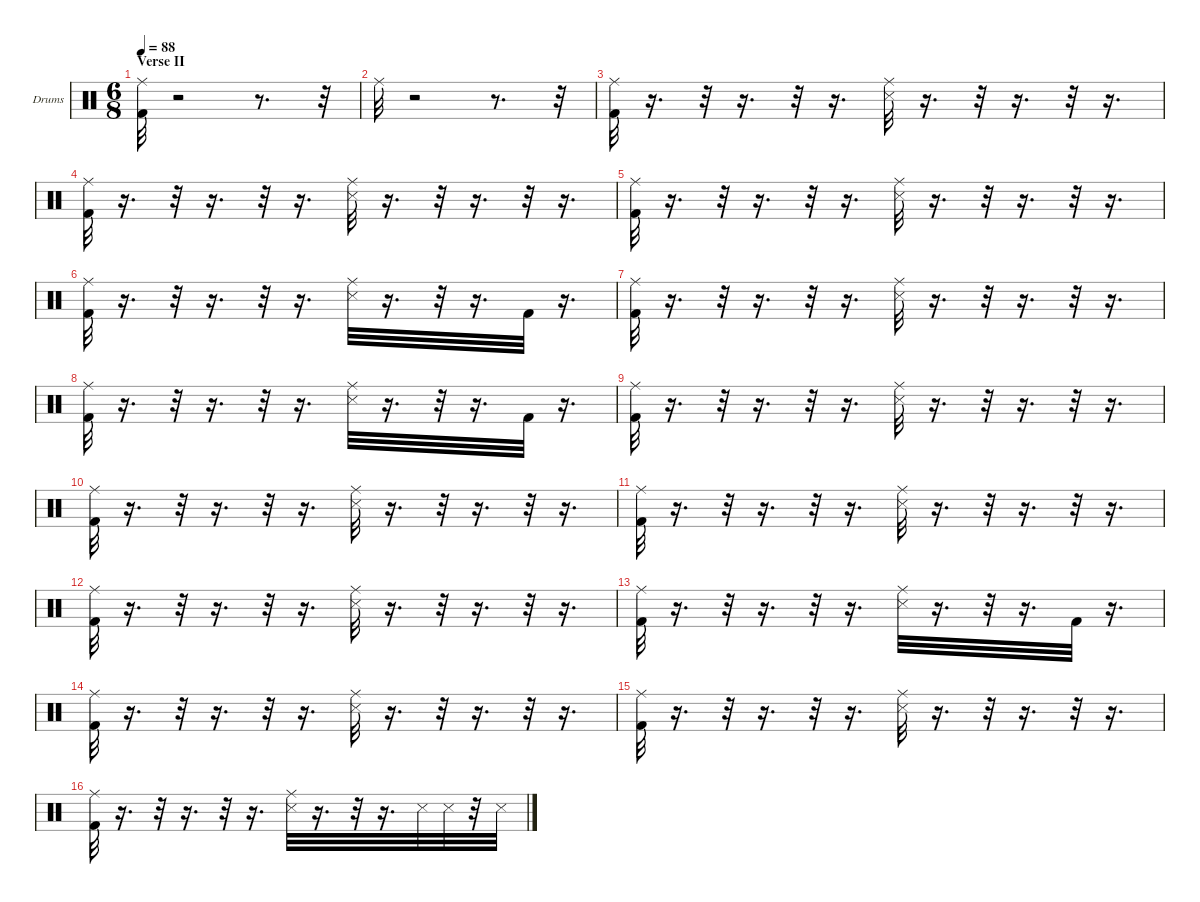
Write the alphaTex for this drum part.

\hideDynamics
\bracketExtendMode nobrackets
\firstSystemTrackNameOrientation horizontal
\otherSystemsTrackNameOrientation horizontal
\track ("Drumkit" "Drums") {instrument percussion}
\staff {score}
\articulation defaults
\ts (6 8)
\section ("" "Verse II")
\tempo 88
\clef neutral
\ks c
("Kick (hit) 2" "Ride (middle)").32{dy fff} r.2 r.8{d} r.32 |
"Ride (middle)".32{dy ff} r.2 r.8{d} r.32 |
("Kick (hit) 2" "Ride (middle)").32{dy fff} r.16{d} r.32 r.16{d} r.32 r.16{d} ("Snare (side stick) 3" "Ride (middle)").32{dy ff} r.16{d} r.32 r.16{d} r.32 r.16{d} |
("Kick (hit) 2" "Ride (middle)").32{dy fff} r.16{d} r.32 r.16{d} r.32 r.16{d} ("Snare (side stick) 3" "Ride (middle)").32{dy ff} r.16{d} r.32 r.16{d} r.32 r.16{d} |
("Kick (hit) 2" "Ride (middle)").32{dy fff} r.16{d} r.32 r.16{d} r.32 r.16{d} ("Snare (side stick) 3" "Ride (middle)").32{dy ff} r.16{d} r.32 r.16{d} r.32 r.16{d} |
("Kick (hit) 2" "Ride (middle)").32{dy fff} r.16{d} r.32 r.16{d} r.32 r.16{d} ("Snare (side stick) 3" "Ride (middle)").32{dy ff} r.16{d} r.32 r.16{d} "Kick (hit) 2".32{dy f} r.16{d} |
("Kick (hit) 2" "Ride (middle)").32{dy fff} r.16{d} r.32 r.16{d} r.32 r.16{d} ("Snare (side stick) 3" "Ride (middle)").32{dy ff} r.16{d} r.32 r.16{d} r.32 r.16{d} |
("Kick (hit) 2" "Ride (middle)").32{dy fff} r.16{d} r.32 r.16{d} r.32 r.16{d} ("Snare (side stick) 3" "Ride (middle)").32{dy ff} r.16{d} r.32 r.16{d} "Kick (hit) 2".32{dy f} r.16{d} |
("Kick (hit) 2" "Ride (middle)").32{dy fff} r.16{d} r.32 r.16{d} r.32 r.16{d} ("Snare (side stick) 3" "Ride (middle)").32{dy ff} r.16{d} r.32 r.16{d} r.32 r.16{d} |
("Kick (hit) 2" "Ride (middle)").32{dy fff} r.16{d} r.32 r.16{d} r.32 r.16{d} ("Snare (side stick) 3" "Ride (middle)").32{dy ff} r.16{d} r.32 r.16{d} r.32 r.16{d} |
("Kick (hit) 2" "Ride (middle)").32{dy fff} r.16{d} r.32 r.16{d} r.32 r.16{d} ("Snare (side stick) 3" "Ride (middle)").32{dy ff} r.16{d} r.32 r.16{d} r.32 r.16{d} |
("Kick (hit) 2" "Ride (middle)").32{dy fff} r.16{d} r.32 r.16{d} r.32 r.16{d} ("Snare (side stick) 3" "Ride (middle)").32{dy ff} r.16{d} r.32 r.16{d} r.32 r.16{d} |
("Kick (hit) 2" "Ride (middle)").32{dy fff} r.16{d} r.32 r.16{d} r.32 r.16{d} ("Snare (side stick) 3" "Ride (middle)").32{dy ff} r.16{d} r.32 r.16{d} "Kick (hit) 2".32{dy f} r.16{d} |
("Kick (hit) 2" "Ride (middle)").32{dy fff} r.16{d} r.32 r.16{d} r.32 r.16{d} ("Snare (side stick) 3" "Ride (middle)").32{dy ff} r.16{d} r.32 r.16{d} r.32 r.16{d} |
("Kick (hit) 2" "Ride (middle)").32{dy fff} r.16{d} r.32 r.16{d} r.32 r.16{d} ("Snare (side stick) 3" "Ride (middle)").32{dy ff} r.16{d} r.32 r.16{d} r.32 r.16{d} |
("Kick (hit) 2" "Ride (middle)").32{dy fff} r.16{d} r.32 r.16{d} r.32 r.16{d} ("Snare (side stick) 3" "Ride (middle)").32{dy ff} r.16{d} r.32 r.16{d} "Snare (side stick) 3".32{dy f} "Snare (side stick) 3".32{dy mf} r.32 "Snare (side stick) 3".32{dy f}
